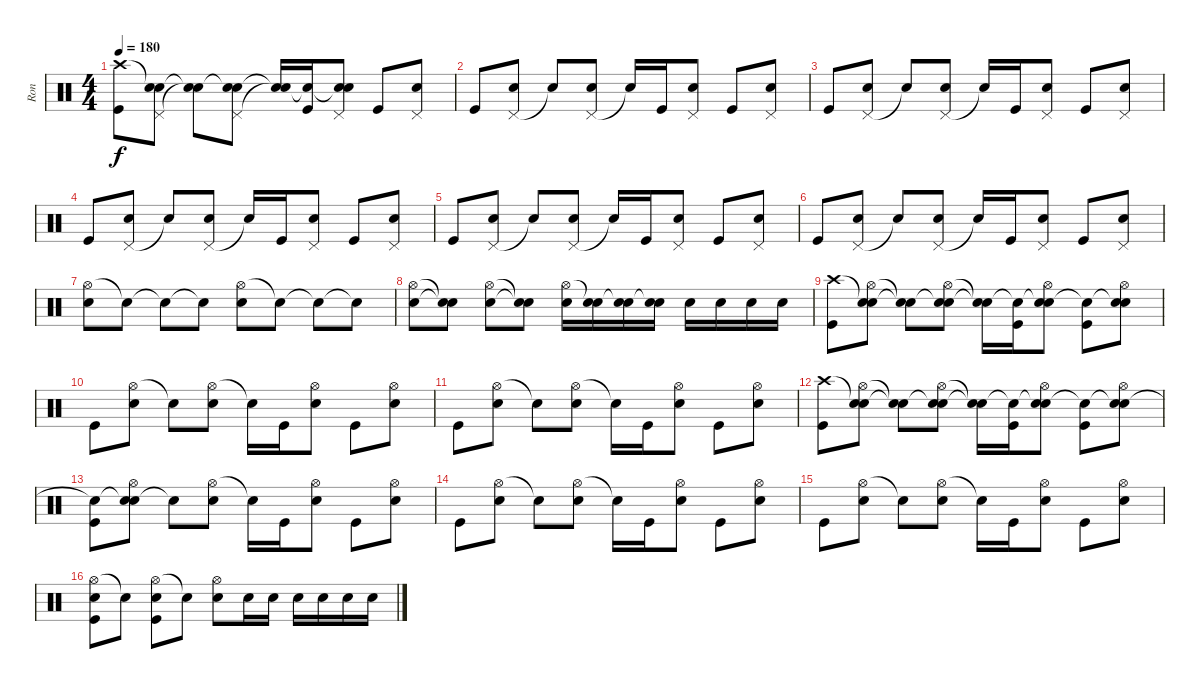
\track ("Ron" "Ron") {instrument percussion}
\staff {score}
\articulation defaults
\ts (4 4)
\tempo 180
\clef neutral
\ks c
("Crash high (hit)" "Kick (hit)").8{dy f} ("Snare (hit)"{t} "Pedal Hi-Hat (hit)" "Electric Snare (hit)").8 ("Snare (hit)"{t} "Snare (hit)"{t}).8 ("Snare (hit)"{t} "Pedal Hi-Hat (hit)" "Electric Snare (hit)").8 ("Snare (hit)"{t} "Snare (hit)"{t}).16 ("Snare (hit)"{t} "Kick (hit)").16 ("Snare (hit)"{t} "Pedal Hi-Hat (hit)" "Electric Snare (hit)").8 "Kick (hit)".8 ("Pedal Hi-Hat (hit)" "Electric Snare (hit)").8 |
"Kick (hit)".8 ("Pedal Hi-Hat (hit)" "Electric Snare (hit)").8 "Snare (hit)"{t}.8 ("Pedal Hi-Hat (hit)" "Electric Snare (hit)").8 "Snare (hit)"{t}.16 "Kick (hit)".16 ("Pedal Hi-Hat (hit)" "Electric Snare (hit)").8 "Kick (hit)".8 ("Pedal Hi-Hat (hit)" "Electric Snare (hit)").8 |
"Kick (hit)".8 ("Pedal Hi-Hat (hit)" "Electric Snare (hit)").8 "Snare (hit)"{t}.8 ("Pedal Hi-Hat (hit)" "Electric Snare (hit)").8 "Snare (hit)"{t}.16 "Kick (hit)".16 ("Pedal Hi-Hat (hit)" "Electric Snare (hit)").8 "Kick (hit)".8 ("Pedal Hi-Hat (hit)" "Electric Snare (hit)").8 |
"Kick (hit)".8 ("Pedal Hi-Hat (hit)" "Electric Snare (hit)").8 "Snare (hit)"{t}.8 ("Pedal Hi-Hat (hit)" "Electric Snare (hit)").8 "Snare (hit)"{t}.16 "Kick (hit)".16 ("Pedal Hi-Hat (hit)" "Electric Snare (hit)").8 "Kick (hit)".8 ("Pedal Hi-Hat (hit)" "Electric Snare (hit)").8 |
"Kick (hit)".8 ("Pedal Hi-Hat (hit)" "Electric Snare (hit)").8 "Snare (hit)"{t}.8 ("Pedal Hi-Hat (hit)" "Electric Snare (hit)").8 "Snare (hit)"{t}.16 "Kick (hit)".16 ("Pedal Hi-Hat (hit)" "Electric Snare (hit)").8 "Kick (hit)".8 ("Pedal Hi-Hat (hit)" "Electric Snare (hit)").8 |
"Kick (hit)".8 ("Pedal Hi-Hat (hit)" "Electric Snare (hit)").8 "Snare (hit)"{t}.8 ("Pedal Hi-Hat (hit)" "Electric Snare (hit)").8 "Snare (hit)"{t}.16 "Kick (hit)".16 ("Pedal Hi-Hat (hit)" "Electric Snare (hit)").8 "Kick (hit)".8 ("Pedal Hi-Hat (hit)" "Electric Snare (hit)").8 |
("Hi-Hat (open)" "Electric Snare (hit)").8 "Snare (hit)"{t}.8 "Snare (hit)"{t}.8 "Snare (hit)"{t}.8 ("Hi-Hat (open)" "Electric Snare (hit)").8 "Snare (hit)"{t}.8 "Snare (hit)"{t}.8 "Snare (hit)"{t}.8 |
("Hi-Hat (open)" "Electric Snare (hit)").8 ("Snare (hit)"{t} "Snare (hit)"{t}).8 ("Hi-Hat (open)" "Electric Snare (hit)").8 ("Snare (hit)"{t} "Snare (hit)"{t}).8 ("Hi-Hat (open)" "Electric Snare (hit)").16 ("Snare (hit)"{t} "Electric Snare (hit)").16 ("Snare (hit)"{t} "Electric Snare (hit)").16 ("Snare (hit)"{t} "Electric Snare (hit)").16 "Electric Snare (hit)".16 "Electric Snare (hit)".16 "Electric Snare (hit)".16 "Electric Snare (hit)".16 |
("Crash high (hit)" "Kick (hit)").8 ("Snare (hit)"{t} "Hi-Hat (open)" "Electric Snare (hit)").8 ("Snare (hit)"{t} "Snare (hit)"{t}).8 ("Snare (hit)"{t} "Hi-Hat (open)" "Electric Snare (hit)").8 ("Snare (hit)"{t} "Snare (hit)"{t}).16 ("Snare (hit)"{t} "Kick (hit)").16 ("Snare (hit)"{t} "Hi-Hat (open)" "Electric Snare (hit)").8 ("Snare (hit)"{t} "Kick (hit)").8 ("Snare (hit)"{t} "Hi-Hat (open)" "Electric Snare (hit)").8 |
"Kick (hit)".8 ("Hi-Hat (open)" "Electric Snare (hit)").8 "Snare (hit)"{t}.8 ("Hi-Hat (open)" "Electric Snare (hit)").8 "Snare (hit)"{t}.16 "Kick (hit)".16 ("Hi-Hat (open)" "Electric Snare (hit)").8 "Kick (hit)".8 ("Hi-Hat (open)" "Electric Snare (hit)").8 |
"Kick (hit)".8 ("Hi-Hat (open)" "Electric Snare (hit)").8 "Snare (hit)"{t}.8 ("Hi-Hat (open)" "Electric Snare (hit)").8 "Snare (hit)"{t}.16 "Kick (hit)".16 ("Hi-Hat (open)" "Electric Snare (hit)").8 "Kick (hit)".8 ("Hi-Hat (open)" "Electric Snare (hit)").8 |
("Crash high (hit)" "Kick (hit)").8 ("Snare (hit)"{t} "Hi-Hat (open)" "Electric Snare (hit)").8 ("Snare (hit)"{t} "Snare (hit)"{t}).8 ("Snare (hit)"{t} "Hi-Hat (open)" "Electric Snare (hit)").8 ("Snare (hit)"{t} "Snare (hit)"{t}).16 ("Snare (hit)"{t} "Kick (hit)").16 ("Snare (hit)"{t} "Hi-Hat (open)" "Electric Snare (hit)").8 ("Snare (hit)"{t} "Kick (hit)").8 ("Snare (hit)"{t} "Hi-Hat (open)" "Electric Snare (hit)").8 |
("Snare (hit)"{t} "Kick (hit)").8 ("Snare (hit)"{t} "Hi-Hat (open)" "Electric Snare (hit)").8 "Snare (hit)"{t}.8 ("Hi-Hat (open)" "Electric Snare (hit)").8 "Snare (hit)"{t}.16 "Kick (hit)".16 ("Hi-Hat (open)" "Electric Snare (hit)").8 "Kick (hit)".8 ("Hi-Hat (open)" "Electric Snare (hit)").8 |
"Kick (hit)".8 ("Hi-Hat (open)" "Electric Snare (hit)").8 "Snare (hit)"{t}.8 ("Hi-Hat (open)" "Electric Snare (hit)").8 "Snare (hit)"{t}.16 "Kick (hit)".16 ("Hi-Hat (open)" "Electric Snare (hit)").8 "Kick (hit)".8 ("Hi-Hat (open)" "Electric Snare (hit)").8 |
"Kick (hit)".8 ("Hi-Hat (open)" "Electric Snare (hit)").8 "Snare (hit)"{t}.8 ("Hi-Hat (open)" "Electric Snare (hit)").8 "Snare (hit)"{t}.16 "Kick (hit)".16 ("Hi-Hat (open)" "Electric Snare (hit)").8 "Kick (hit)".8 ("Hi-Hat (open)" "Electric Snare (hit)").8 |
("Hi-Hat (open)" "Electric Snare (hit)" "Kick (hit)").8 "Snare (hit)"{t}.8 ("Hi-Hat (open)" "Electric Snare (hit)" "Kick (hit)").8 "Snare (hit)"{t}.8 ("Hi-Hat (open)" "Electric Snare (hit)").8 "Electric Snare (hit)".16 "Electric Snare (hit)".16 "Electric Snare (hit)".16 "Electric Snare (hit)".16 "Electric Snare (hit)".16 "Electric Snare (hit)".16
